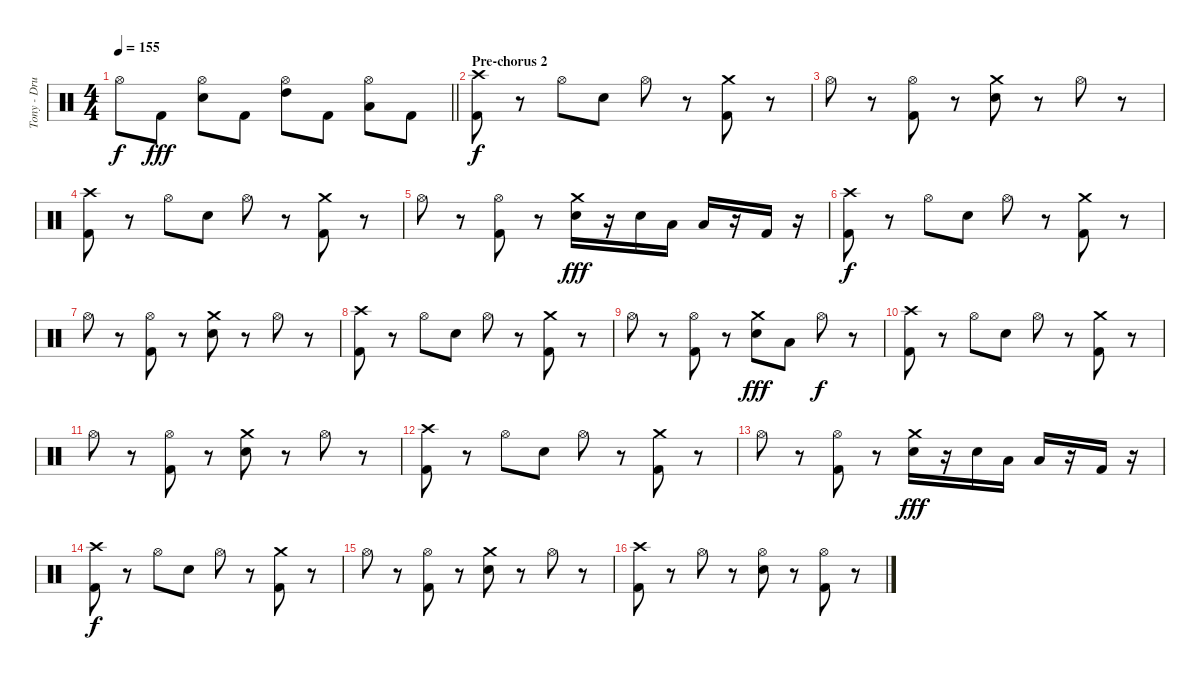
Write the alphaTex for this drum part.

\track ("Tony - Drums" "Tony - Dru") {instrument percussion}
\staff {score}
\articulation defaults
\ts (4 4)
\tempo 155
\clef neutral
\barLineRight lightlight
\ks c "Hi-Hat (open)".8{dy f} "Kick (hit) 2".8{dy fff}
("Hi-Hat (open)" "Electric Snare (hit)").8 "Kick (hit) 2".8 ("Hi-Hat (open)" "High Tom (hit)").8 "Kick (hit) 2".8 ("Hi-Hat (open)" "Low Tom (hit)").8 "Kick (hit) 2".8 |
\section ("" "Pre-chorus 2")
("Crash high (hit)" "Kick (hit) 2").8{dy f} r.8 "Hi-Hat (open)".8 "Electric Snare (hit)".8 "Hi-Hat (open)".8 r.8 ("Crash medium (hit)" "Kick (hit) 2").8 r.8 |
"Hi-Hat (open)".8 r.8 ("Hi-Hat (open)" "Kick (hit) 2").8 r.8 ("Crash medium (hit)" "Electric Snare (hit)").8 r.8 "Hi-Hat (open)".8 r.8 |
("Crash high (hit)" "Kick (hit) 2").8 r.8 "Hi-Hat (open)".8 "Electric Snare (hit)".8 "Hi-Hat (open)".8 r.8 ("Crash medium (hit)" "Kick (hit) 2").8 r.8 |
"Hi-Hat (open)".8 r.8 ("Hi-Hat (open)" "Kick (hit) 2").8 r.8 ("Crash medium (hit)" "Electric Snare (hit)").16{dy fff} r.16 "Electric Snare (hit)".16 "Low Tom (hit)".16 "Low Floor Tom (hit)".16 r.16 "Kick (hit) 2".16 r.16 |
("Crash high (hit)" "Kick (hit) 2").8{dy f} r.8 "Hi-Hat (open)".8 "Electric Snare (hit)".8 "Hi-Hat (open)".8 r.8 ("Crash medium (hit)" "Kick (hit) 2").8 r.8 |
"Hi-Hat (open)".8 r.8 ("Hi-Hat (open)" "Kick (hit) 2").8 r.8 ("Crash medium (hit)" "Electric Snare (hit)").8 r.8 "Hi-Hat (open)".8 r.8 |
("Crash high (hit)" "Kick (hit) 2").8 r.8 "Hi-Hat (open)".8 "Electric Snare (hit)".8 "Hi-Hat (open)".8 r.8 ("Crash medium (hit)" "Kick (hit) 2").8 r.8 |
"Hi-Hat (open)".8 r.8 ("Hi-Hat (open)" "Kick (hit) 2").8 r.8 ("Crash medium (hit)" "Electric Snare (hit)").8{dy fff} "Low Floor Tom (hit)".8 "Hi-Hat (open)".8{dy f} r.8 |
("Crash high (hit)" "Kick (hit) 2").8 r.8 "Hi-Hat (open)".8 "Electric Snare (hit)".8 "Hi-Hat (open)".8 r.8 ("Crash medium (hit)" "Kick (hit) 2").8 r.8 |
"Hi-Hat (open)".8 r.8 ("Hi-Hat (open)" "Kick (hit) 2").8 r.8 ("Crash medium (hit)" "Electric Snare (hit)").8 r.8 "Hi-Hat (open)".8 r.8 |
("Crash high (hit)" "Kick (hit) 2").8 r.8 "Hi-Hat (open)".8 "Electric Snare (hit)".8 "Hi-Hat (open)".8 r.8 ("Crash medium (hit)" "Kick (hit) 2").8 r.8 |
"Hi-Hat (open)".8 r.8 ("Hi-Hat (open)" "Kick (hit) 2").8 r.8 ("Crash medium (hit)" "Electric Snare (hit)").16{dy fff} r.16 "Electric Snare (hit)".16 "Low Tom (hit)".16 "Low Floor Tom (hit)".16 r.16 "Kick (hit) 2".16 r.16 |
("Crash high (hit)" "Kick (hit) 2").8{dy f} r.8 "Hi-Hat (open)".8 "Electric Snare (hit)".8 "Hi-Hat (open)".8 r.8 ("Crash medium (hit)" "Kick (hit) 2").8 r.8 |
"Hi-Hat (open)".8 r.8 ("Hi-Hat (open)" "Kick (hit) 2").8 r.8 ("Crash medium (hit)" "Electric Snare (hit)").8 r.8 "Hi-Hat (open)".8 r.8 |
("Crash high (hit)" "Kick (hit) 2").8 r.8 "Hi-Hat (open)".8 r.8 ("Hi-Hat (open)" "Electric Snare (hit)").8 r.8 ("Hi-Hat (open)" "Kick (hit) 2").8 r.8
